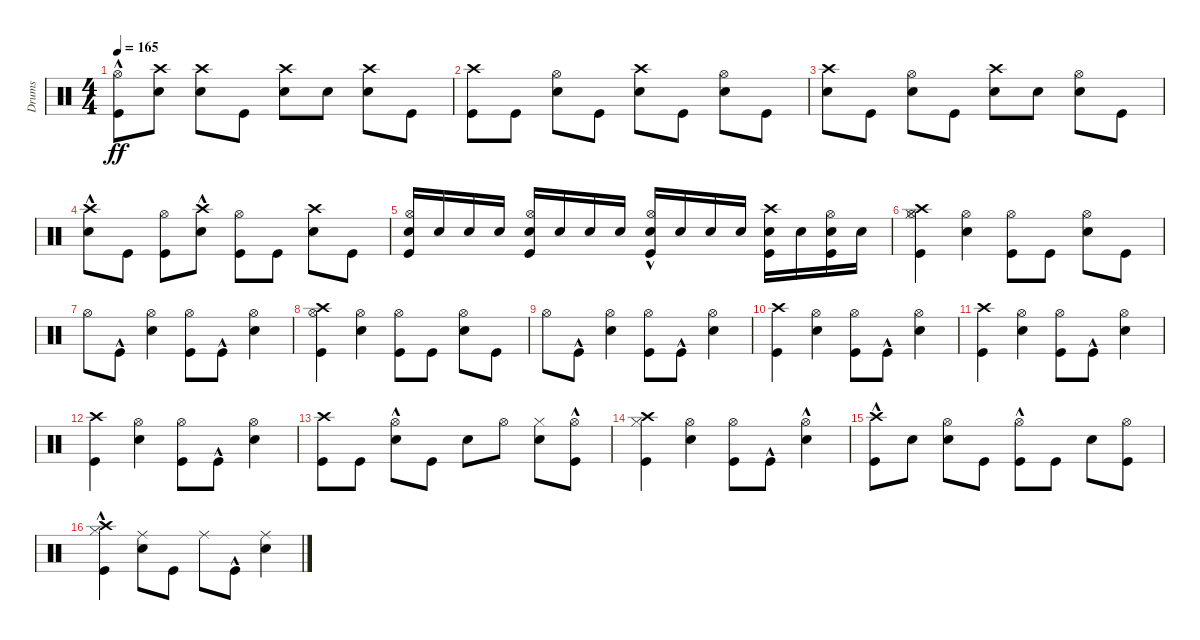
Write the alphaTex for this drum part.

\track ("Drums" "Drums") {instrument percussion}
\staff {score}
\articulation defaults
\ts (4 4)
\tempo 165
\clef neutral
\ks c
("Kick (hit)"{hac} "Hi-Hat (open)").8{dy ff} ("Snare (hit) 2" "Crash high (hit)").8 ("Snare (hit) 2" "Crash high (hit)").8 "Kick (hit)".8 ("Snare (hit) 2" "Crash high (hit)").8 "Snare (hit) 2".8 ("Snare (hit) 2" "Crash high (hit)").8 "Kick (hit)".8 |
("Kick (hit)" "Crash high (hit)").8 "Kick (hit)".8 ("Snare (hit) 2" "Hi-Hat (open)").8 "Kick (hit)".8 ("Snare (hit) 2" "Crash high (hit)").8 "Kick (hit)".8 ("Snare (hit) 2" "Hi-Hat (open)").8 "Kick (hit)".8 |
("Snare (hit) 2" "Crash high (hit)").8 "Kick (hit)".8 ("Snare (hit) 2" "Hi-Hat (open)").8 "Kick (hit)".8 ("Snare (hit) 2" "Crash high (hit)").8 "Snare (hit) 2".8 ("Snare (hit) 2" "Hi-Hat (open)").8 "Kick (hit)".8 |
("Snare (hit) 2"{hac} "Crash high (hit)"{hac}).8 "Kick (hit)".8 ("Kick (hit)" "Hi-Hat (open)").8 ("Snare (hit) 2"{hac} "Crash high (hit)"{hac}).8 ("Kick (hit)" "Hi-Hat (open)").8 "Kick (hit)".8 ("Snare (hit) 2" "Crash high (hit)").8 "Kick (hit)".8 |
("Kick (hit)" "Snare (hit) 2" "Hi-Hat (open)").16 "Snare (hit) 2".16 "Snare (hit) 2".16 "Snare (hit) 2".16 ("Kick (hit)" "Snare (hit) 2" "Hi-Hat (open)").16 "Snare (hit) 2".16 "Snare (hit) 2".16 "Snare (hit) 2".16 ("Kick (hit)" "Snare (hit) 2" "Hi-Hat (open)"{hac}).16 "Snare (hit) 2".16 "Snare (hit) 2".16 "Snare (hit) 2".16 ("Kick (hit)" "Snare (hit) 2" "Crash high (hit)").16 "Snare (hit) 2".16 ("Kick (hit)" "Snare (hit) 2" "Hi-Hat (open)").16 "Snare (hit) 2".16 |
("Kick (hit)" "Hi-Hat (closed)" "Hi-Hat (open)" "Crash high (hit)").4 ("Snare (hit) 2" "Hi-Hat (open)").4 ("Kick (hit)" "Hi-Hat (open)").8 "Kick (hit)".8 ("Snare (hit) 2" "Hi-Hat (open)").8 "Kick (hit)".8 |
"Hi-Hat (open)".8 "Kick (hit)"{hac}.8 ("Snare (hit) 2" "Hi-Hat (open)").4 ("Kick (hit)" "Hi-Hat (open)").8 "Kick (hit)"{hac}.8 ("Snare (hit) 2" "Hi-Hat (open)").4 |
("Kick (hit)" "Hi-Hat (open)" "Crash high (hit)").4 ("Snare (hit) 2" "Hi-Hat (open)").4 ("Kick (hit)" "Hi-Hat (open)").8 "Kick (hit)".8 ("Snare (hit) 2" "Hi-Hat (open)").8 "Kick (hit)".8 |
"Hi-Hat (open)".8 "Kick (hit)"{hac}.8 ("Snare (hit) 2" "Hi-Hat (open)").4 ("Kick (hit)" "Hi-Hat (open)").8 "Kick (hit)"{hac}.8 ("Snare (hit) 2" "Hi-Hat (open)").4 |
("Kick (hit)" "Crash high (hit)").4 ("Snare (hit) 2" "Hi-Hat (open)").4 ("Kick (hit)" "Hi-Hat (open)").8 "Kick (hit)"{hac}.8 ("Snare (hit) 2" "Hi-Hat (open)").4 |
("Kick (hit)" "Crash high (hit)").4 ("Snare (hit) 2" "Hi-Hat (open)").4 ("Kick (hit)" "Hi-Hat (open)").8 "Kick (hit)"{hac}.8 ("Snare (hit) 2" "Hi-Hat (open)").4 |
("Kick (hit)" "Crash high (hit)").4 ("Snare (hit) 2" "Hi-Hat (open)").4 ("Kick (hit)" "Hi-Hat (open)").8 "Kick (hit)"{hac}.8 ("Snare (hit) 2" "Hi-Hat (open)").4 |
("Kick (hit)" "Crash high (hit)").8 "Kick (hit)".8 ("Snare (hit) 2" "Hi-Hat (open)"{hac}).8 "Kick (hit)".8 "Snare (hit) 2".8 "Hi-Hat (open)".8 ("Snare (hit) 2" "Hi-Hat (closed)").8 ("Kick (hit)" "Hi-Hat (open)"{hac}).8 |
("Kick (hit)" "Hi-Hat (closed)" "Crash high (hit)").4 ("Snare (hit) 2" "Hi-Hat (open)").4 ("Kick (hit)" "Hi-Hat (open)").8 "Kick (hit)"{hac}.8 ("Snare (hit) 2"{hac} "Hi-Hat (open)").4 |
("Kick (hit)"{hac} "Crash high (hit)").8 "Snare (hit) 2".8 ("Snare (hit) 2" "Hi-Hat (open)").8 "Kick (hit)".8 ("Kick (hit)" "Hi-Hat (open)"{hac}).8 "Kick (hit)".8 "Snare (hit) 2".8 ("Kick (hit)" "Hi-Hat (open)").8 |
("Kick (hit)"{hac} "Hi-Hat (closed)" "Crash high (hit)").4 ("Snare (hit) 2" "Ride (middle)").8 "Kick (hit)".8 "Ride (middle)".8 "Kick (hit)"{hac}.8 ("Snare (hit) 2" "Ride (middle)").4
